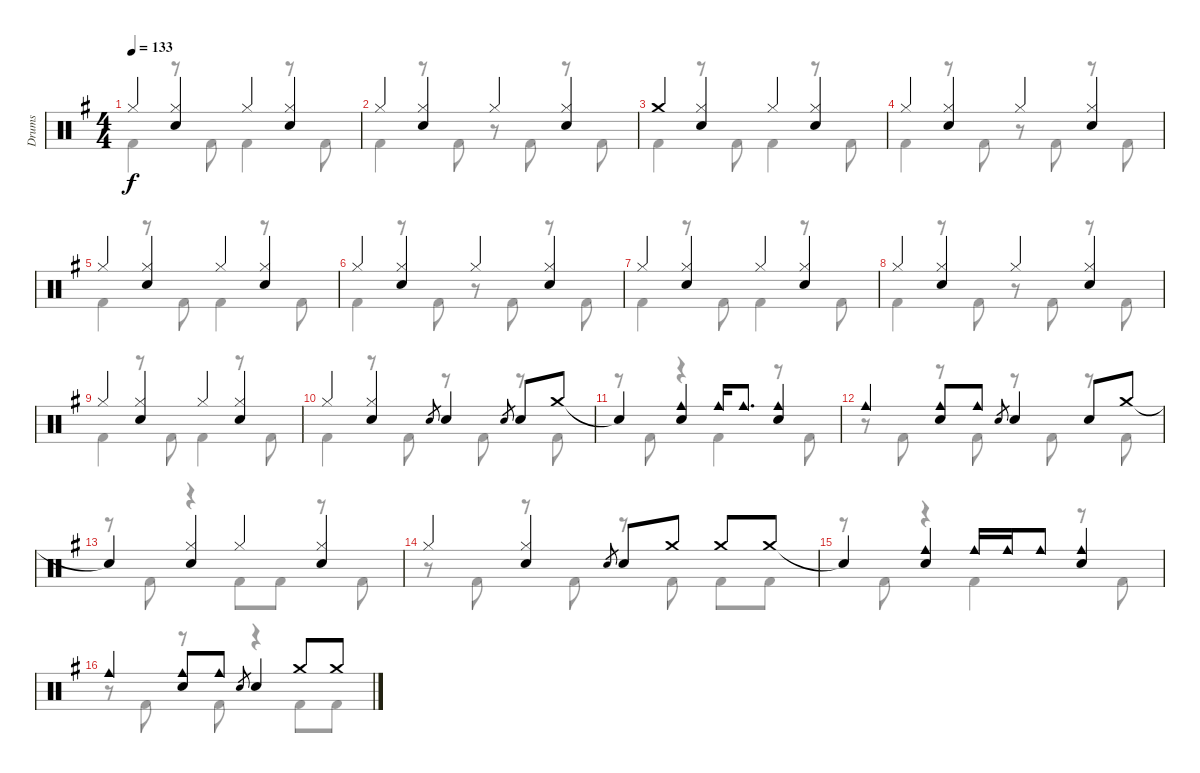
\track ("Drums" "Drums") {instrument percussion}
\staff {score}
\articulation defaults
\voice
\ts (4 4)
\tempo 133
\clef neutral
\ks g "Hi-Hat (closed)".4{dy f}
("Hi-Hat (closed)" "Snare (hit) 2").4 "Hi-Hat (closed)".4 ("Hi-Hat (closed)" "Snare (hit) 2").4 |
"Hi-Hat (closed)".4 ("Hi-Hat (closed)" "Snare (hit) 2").4 "Hi-Hat (closed)".4 ("Hi-Hat (closed)" "Snare (hit) 2").4 |
"Crash medium (hit)".4 ("Hi-Hat (closed)" "Snare (hit) 2").4 "Hi-Hat (closed)".4 ("Hi-Hat (closed)" "Snare (hit) 2").4 |
"Hi-Hat (closed)".4 ("Hi-Hat (closed)" "Snare (hit) 2").4 "Hi-Hat (closed)".4 ("Hi-Hat (closed)" "Snare (hit) 2").4 |
"Hi-Hat (closed)".4 ("Hi-Hat (closed)" "Snare (hit) 2").4 "Hi-Hat (closed)".4 ("Hi-Hat (closed)" "Snare (hit) 2").4 |
"Hi-Hat (closed)".4 ("Hi-Hat (closed)" "Snare (hit) 2").4 "Hi-Hat (closed)".4 ("Hi-Hat (closed)" "Snare (hit) 2").4 |
"Hi-Hat (closed)".4 ("Hi-Hat (closed)" "Snare (hit) 2").4 "Hi-Hat (closed)".4 ("Hi-Hat (closed)" "Snare (hit) 2").4 |
"Hi-Hat (closed)".4 ("Hi-Hat (closed)" "Snare (hit) 2").4 "Hi-Hat (closed)".4 ("Hi-Hat (closed)" "Snare (hit) 2").4 |
"Hi-Hat (closed)".4 ("Hi-Hat (closed)" "Snare (hit) 2").4 "Hi-Hat (closed)".4 ("Hi-Hat (closed)" "Snare (hit) 2").4 |
"Hi-Hat (closed)".4 ("Hi-Hat (closed)" "Snare (hit) 2").4 "Snare (hit) 2".8{gr} "Snare (hit) 2".4 "Snare (hit) 2".8{gr} "Snare (hit) 2".8 "Crash medium (hit)".8 |
"Snare (hit)"{t}.4 ("Cowbell medium (hit)" "Snare (hit) 2").4 "Cowbell medium (hit)".16 "Cowbell medium (hit)".8{d} ("Cowbell medium (hit)" "Snare (hit) 2").4 |
"Cowbell medium (hit)".4 ("Cowbell medium (hit)" "Snare (hit) 2").8 "Cowbell medium (hit)".8 "Snare (hit) 2".8{gr} "Snare (hit) 2".4 "Snare (hit) 2".8 "Crash medium (hit)".8 |
"Snare (hit)"{t}.4 ("Hi-Hat (closed)" "Snare (hit) 2").4 "Hi-Hat (closed)".4 ("Hi-Hat (closed)" "Snare (hit) 2").4 |
"Hi-Hat (closed)".4 ("Hi-Hat (closed)" "Snare (hit) 2").4 "Snare (hit) 2".8{gr} "Snare (hit) 2".8 "Crash medium (hit)".8 "Crash medium (hit)".8 "Crash medium (hit)".8 |
"Snare (hit)"{t}.4 ("Cowbell medium (hit)" "Snare (hit) 2").4 "Cowbell medium (hit)".16 "Cowbell medium (hit)".16 "Cowbell medium (hit)".8 ("Cowbell medium (hit)" "Snare (hit) 2").4 |
"Cowbell medium (hit)".4 ("Cowbell medium (hit)" "Snare (hit) 2").8 "Cowbell medium (hit)".8 "Snare (hit) 2".8{gr} "Snare (hit) 2".4 "Crash medium (hit)".8 "Crash medium (hit)".8
\voice
\clef neutral
\ottava regular
\simile none
\ks g "Kick (hit) 2".4{dy f}
r.8 "Kick (hit) 2".8 "Kick (hit) 2".4 r.8 "Kick (hit) 2".8 |
"Kick (hit) 2".4 r.8 "Kick (hit) 2".8 r.8 "Kick (hit) 2".8 r.8 "Kick (hit) 2".8 |
"Kick (hit) 2".4 r.8 "Kick (hit) 2".8 "Kick (hit) 2".4 r.8 "Kick (hit) 2".8 |
"Kick (hit) 2".4 r.8 "Kick (hit) 2".8 r.8 "Kick (hit) 2".8 r.8 "Kick (hit) 2".8 |
"Kick (hit) 2".4 r.8 "Kick (hit) 2".8 "Kick (hit) 2".4 r.8 "Kick (hit) 2".8 |
"Kick (hit) 2".4 r.8 "Kick (hit) 2".8 r.8 "Kick (hit) 2".8 r.8 "Kick (hit) 2".8 |
"Kick (hit) 2".4 r.8 "Kick (hit) 2".8 "Kick (hit) 2".4 r.8 "Kick (hit) 2".8 |
"Kick (hit) 2".4 r.8 "Kick (hit) 2".8 r.8 "Kick (hit) 2".8 r.8 "Kick (hit) 2".8 |
"Kick (hit) 2".4 r.8 "Kick (hit) 2".8 "Kick (hit) 2".4 r.8 "Kick (hit) 2".8 |
"Kick (hit) 2".4 r.8 "Kick (hit) 2".8 r.8 "Kick (hit) 2".8 r.8 "Kick (hit) 2".8 |
r.8 "Kick (hit) 2".8 r.4 "Kick (hit) 2".4 r.8 "Kick (hit) 2".8 |
r.8 "Kick (hit) 2".8 r.8 "Kick (hit) 2".8 r.8 "Kick (hit) 2".8 r.8 "Kick (hit) 2".8 |
r.8 "Kick (hit) 2".8 r.4 "Kick (hit) 2".8 "Kick (hit) 2".8 r.8 "Kick (hit) 2".8 |
r.8 "Kick (hit) 2".8 r.8 "Kick (hit) 2".8 r.8 "Kick (hit) 2".8 "Kick (hit) 2".8 "Kick (hit) 2".8 |
r.8 "Kick (hit) 2".8 r.4 "Kick (hit) 2".4 r.8 "Kick (hit) 2".8 |
r.8 "Kick (hit) 2".8 r.8 "Kick (hit) 2".8 r.4 "Kick (hit) 2".8 "Kick (hit) 2".8
